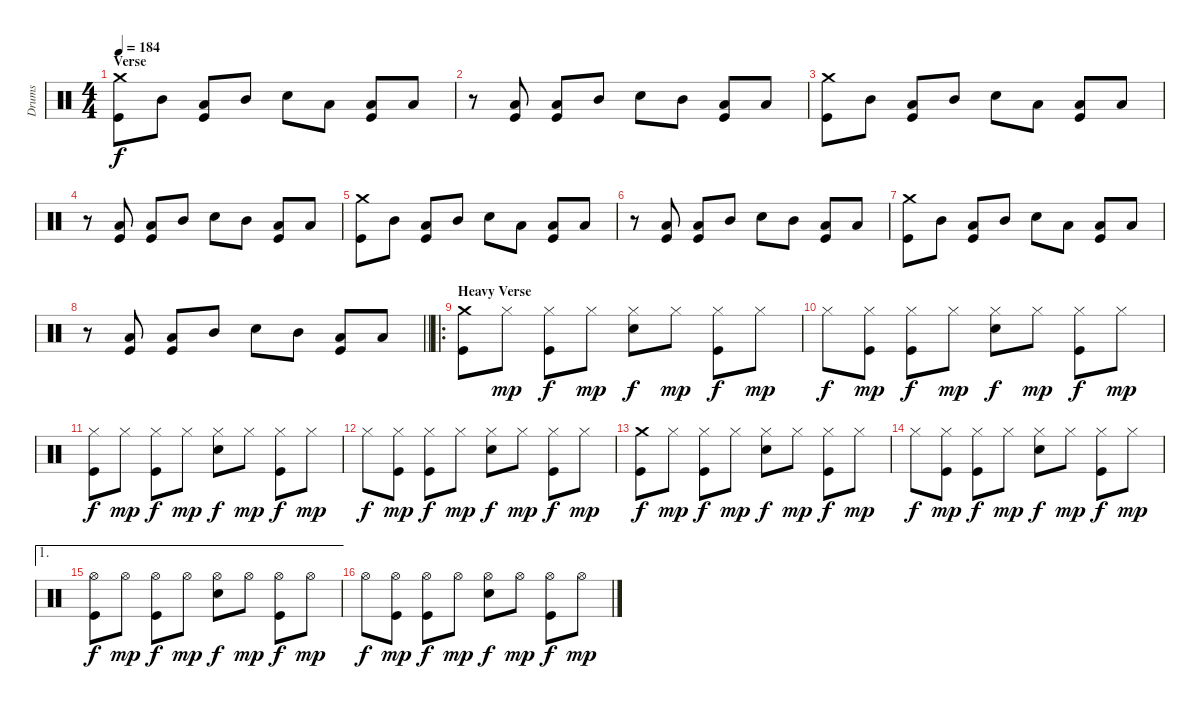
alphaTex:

\track ("Drums" "Drums") {instrument percussion}
\staff {score}
\articulation defaults
\ts (4 4)
\section ("" "Verse")
\tempo 184
\clef neutral
\ks c
("Crash medium (hit)" "Kick (hit)").8{dy f} "Mid Tom (hit)".8 ("Low Tom (hit)" "Kick (hit)").8 "Mid Tom (hit)".8 "Electric Snare (hit)".8 "Low Tom (hit)".8 ("Low Tom (hit)" "Kick (hit)").8 "Low Tom (hit)".8 |
r.8 ("Low Tom (hit)" "Kick (hit)").8 ("Low Tom (hit)" "Kick (hit)").8 "Mid Tom (hit)".8 "Electric Snare (hit)".8 "Mid Tom (hit)".8 ("Low Tom (hit)" "Kick (hit)").8 "Low Tom (hit)".8 |
("Crash medium (hit)" "Kick (hit)").8 "Mid Tom (hit)".8 ("Low Tom (hit)" "Kick (hit)").8 "Mid Tom (hit)".8 "Electric Snare (hit)".8 "Low Tom (hit)".8 ("Low Tom (hit)" "Kick (hit)").8 "Low Tom (hit)".8 |
r.8 ("Low Tom (hit)" "Kick (hit)").8 ("Low Tom (hit)" "Kick (hit)").8 "Mid Tom (hit)".8 "Electric Snare (hit)".8 "Mid Tom (hit)".8 ("Low Tom (hit)" "Kick (hit)").8 "Low Tom (hit)".8 |
("Crash medium (hit)" "Kick (hit)").8 "Mid Tom (hit)".8 ("Low Tom (hit)" "Kick (hit)").8 "Mid Tom (hit)".8 "Electric Snare (hit)".8 "Low Tom (hit)".8 ("Low Tom (hit)" "Kick (hit)").8 "Low Tom (hit)".8 |
r.8 ("Low Tom (hit)" "Kick (hit)").8 ("Low Tom (hit)" "Kick (hit)").8 "Mid Tom (hit)".8 "Electric Snare (hit)".8 "Mid Tom (hit)".8 ("Low Tom (hit)" "Kick (hit)").8 "Low Tom (hit)".8 |
("Crash medium (hit)" "Kick (hit)").8 "Mid Tom (hit)".8 ("Low Tom (hit)" "Kick (hit)").8 "Mid Tom (hit)".8 "Electric Snare (hit)".8 "Low Tom (hit)".8 ("Low Tom (hit)" "Kick (hit)").8 "Low Tom (hit)".8 |
\barLineRight lightlight
r.8 ("Low Tom (hit)" "Kick (hit)").8 ("Low Tom (hit)" "Kick (hit)").8 "Mid Tom (hit)".8 "Electric Snare (hit)".8 "Mid Tom (hit)".8 ("Low Tom (hit)" "Kick (hit)").8 "Low Tom (hit)".8 |
\ro
\section ("" "Heavy Verse")
("Crash medium (hit)" "Kick (hit)").8 "Hi-Hat (closed)".8{dy mp} ("Hi-Hat (closed)" "Kick (hit)").8{dy f} "Hi-Hat (closed)".8{dy mp} ("Hi-Hat (closed)" "Electric Snare (hit)").8{dy f} "Hi-Hat (closed)".8{dy mp} ("Hi-Hat (closed)" "Kick (hit)").8{dy f} "Hi-Hat (closed)".8{dy mp} |
"Hi-Hat (closed)".8{dy f} ("Hi-Hat (closed)" "Kick (hit)").8{dy mp} ("Hi-Hat (closed)" "Kick (hit)").8{dy f} "Hi-Hat (closed)".8{dy mp} ("Hi-Hat (closed)" "Electric Snare (hit)").8{dy f} "Hi-Hat (closed)".8{dy mp} ("Hi-Hat (closed)" "Kick (hit)").8{dy f} "Hi-Hat (closed)".8{dy mp} |
("Hi-Hat (closed)" "Kick (hit)").8{dy f} "Hi-Hat (closed)".8{dy mp} ("Hi-Hat (closed)" "Kick (hit)").8{dy f} "Hi-Hat (closed)".8{dy mp} ("Hi-Hat (closed)" "Electric Snare (hit)").8{dy f} "Hi-Hat (closed)".8{dy mp} ("Hi-Hat (closed)" "Kick (hit)").8{dy f} "Hi-Hat (closed)".8{dy mp} |
"Hi-Hat (closed)".8{dy f} ("Hi-Hat (closed)" "Kick (hit)").8{dy mp} ("Hi-Hat (closed)" "Kick (hit)").8{dy f} "Hi-Hat (closed)".8{dy mp} ("Hi-Hat (closed)" "Electric Snare (hit)").8{dy f} "Hi-Hat (closed)".8{dy mp} ("Hi-Hat (closed)" "Kick (hit)").8{dy f} "Hi-Hat (closed)".8{dy mp} |
("Crash medium (hit)" "Kick (hit)").8{dy f} "Hi-Hat (closed)".8{dy mp} ("Hi-Hat (closed)" "Kick (hit)").8{dy f} "Hi-Hat (closed)".8{dy mp} ("Hi-Hat (closed)" "Electric Snare (hit)").8{dy f} "Hi-Hat (closed)".8{dy mp} ("Hi-Hat (closed)" "Kick (hit)").8{dy f} "Hi-Hat (closed)".8{dy mp} |
"Hi-Hat (closed)".8{dy f} ("Hi-Hat (closed)" "Kick (hit)").8{dy mp} ("Hi-Hat (closed)" "Kick (hit)").8{dy f} "Hi-Hat (closed)".8{dy mp} ("Hi-Hat (closed)" "Electric Snare (hit)").8{dy f} "Hi-Hat (closed)".8{dy mp} ("Hi-Hat (closed)" "Kick (hit)").8{dy f} "Hi-Hat (closed)".8{dy mp} |
\ae 1
("Hi-Hat (open)" "Kick (hit)").8{dy f} "Hi-Hat (open)".8{dy mp} ("Hi-Hat (open)" "Kick (hit)").8{dy f} "Hi-Hat (open)".8{dy mp} ("Hi-Hat (open)" "Electric Snare (hit)").8{dy f} "Hi-Hat (open)".8{dy mp} ("Hi-Hat (open)" "Kick (hit)").8{dy f} "Hi-Hat (open)".8{dy mp} |
"Hi-Hat (open)".8{dy f} ("Hi-Hat (open)" "Kick (hit)").8{dy mp} ("Hi-Hat (open)" "Kick (hit)").8{dy f} "Hi-Hat (open)".8{dy mp} ("Hi-Hat (open)" "Electric Snare (hit)").8{dy f} "Hi-Hat (open)".8{dy mp} ("Hi-Hat (open)" "Kick (hit)").8{dy f} "Hi-Hat (open)".8{dy mp}
